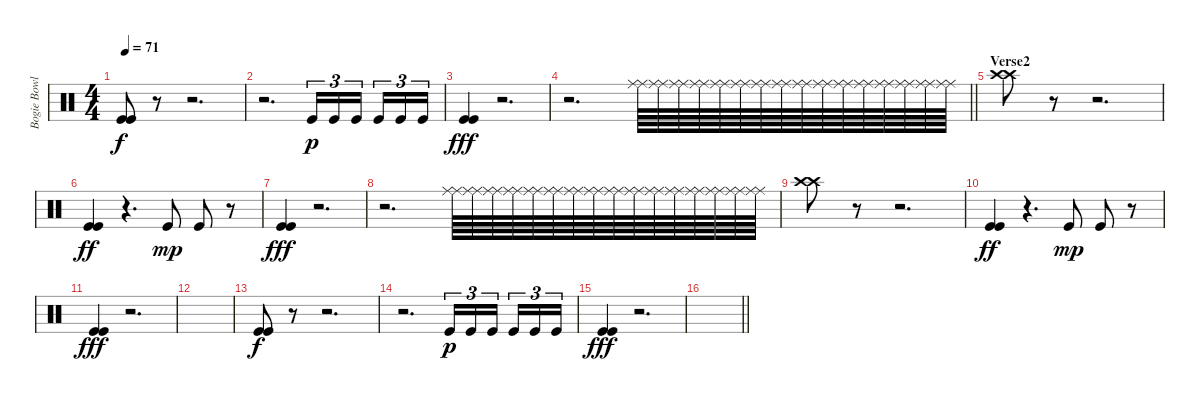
\track ("Bogie Bowles" "Bogie Bowl") {instrument percussion}
\staff {score}
\articulation defaults
\ts (4 4)
\tempo 71
\clef neutral
\ks c
("Kick (hit)" "Kick (hit)").8{dy f} r.8 r.2{d} |
r.2{d} "Kick (hit)".16{tu (3 2) dy p} "Kick (hit)".16{tu (3 2)} "Kick (hit)".16{tu (3 2) beam splitsecondary} "Kick (hit)".16{tu (3 2)} "Kick (hit)".16{tu (3 2)} "Kick (hit)".16{tu (3 2)} |
("Kick (hit)" "Kick (hit)").4{dy fff volume 13} r.2{d} |
\barLineRight lightlight
r.2{d} ("Ride (middle)" "Ride (middle)").64{volume 16} ("Ride (middle)" "Ride (middle)").64 ("Ride (middle)" "Ride (middle)").64 ("Ride (middle)" "Ride (middle)").64 ("Ride (middle)" "Ride (middle)").64 ("Ride (middle)" "Ride (middle)").64 ("Ride (middle)" "Ride (middle)").64 ("Ride (middle)" "Ride (middle)").64 ("Ride (middle)" "Ride (middle)").64 ("Ride (middle)" "Ride (middle)").64 ("Ride (middle)" "Ride (middle)").64 ("Ride (middle)" "Ride (middle)").64 ("Ride (middle)" "Ride (middle)").64 ("Ride (middle)" "Ride (middle)").64 ("Ride (middle)" "Ride (middle)").64 ("Ride (middle)" "Ride (middle)").64 |
\section ("" "Verse2")
("Crash high (hit)" "Crash high (hit)").8 r.8 r.2{d} |
("Kick (hit)" "Kick (hit)").4{dy ff} r.4{d} "Kick (hit)".8{dy mp} "Kick (hit)".8 r.8 |
("Kick (hit)" "Kick (hit)").4{dy fff volume 13} r.2{d} |
r.2{d} ("Ride (middle)" "Ride (middle)").64{volume 16} ("Ride (middle)" "Ride (middle)").64 ("Ride (middle)" "Ride (middle)").64 ("Ride (middle)" "Ride (middle)").64 ("Ride (middle)" "Ride (middle)").64 ("Ride (middle)" "Ride (middle)").64 ("Ride (middle)" "Ride (middle)").64 ("Ride (middle)" "Ride (middle)").64 ("Ride (middle)" "Ride (middle)").64 ("Ride (middle)" "Ride (middle)").64 ("Ride (middle)" "Ride (middle)").64 ("Ride (middle)" "Ride (middle)").64 ("Ride (middle)" "Ride (middle)").64 ("Ride (middle)" "Ride (middle)").64 ("Ride (middle)" "Ride (middle)").64 ("Ride (middle)" "Ride (middle)").64 |
("Crash high (hit)" "Crash high (hit)").8 r.8 r.2{d} |
("Kick (hit)" "Kick (hit)").4{dy ff} r.4{d} "Kick (hit)".8{dy mp} "Kick (hit)".8 r.8 |
("Kick (hit)" "Kick (hit)").4{dy fff volume 13} r.2{d} |
|
("Kick (hit)" "Kick (hit)").8{dy f} r.8 r.2{d} |
r.2{d} "Kick (hit)".16{tu (3 2) dy p} "Kick (hit)".16{tu (3 2)} "Kick (hit)".16{tu (3 2) beam splitsecondary} "Kick (hit)".16{tu (3 2)} "Kick (hit)".16{tu (3 2)} "Kick (hit)".16{tu (3 2)} |
("Kick (hit)" "Kick (hit)").4{dy fff volume 13} r.2{d} |
\barLineRight lightlight
